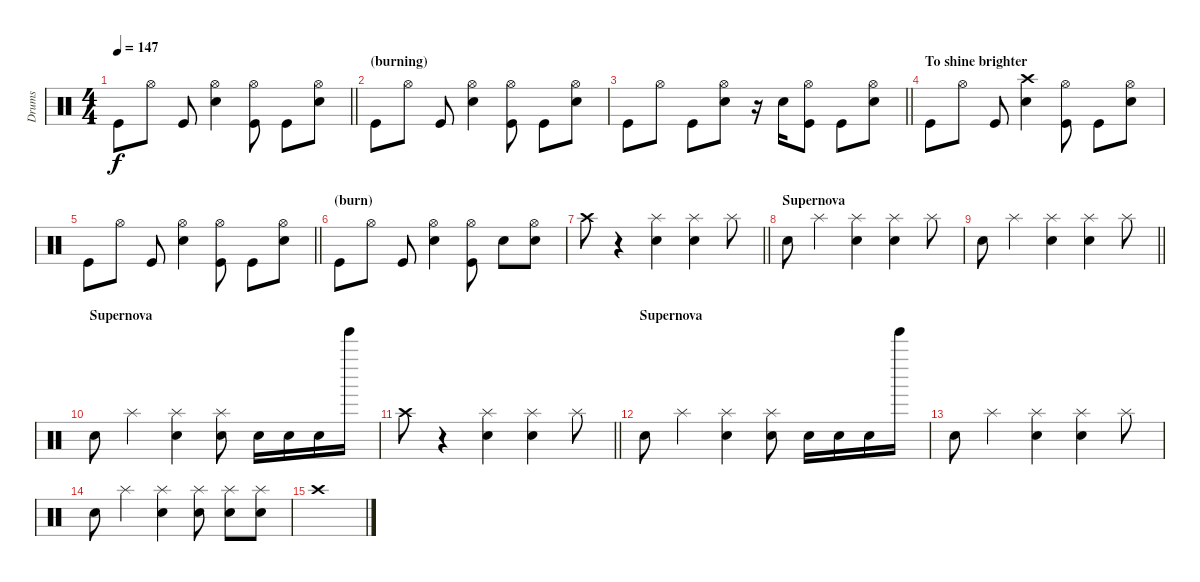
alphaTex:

\track ("Drums" "Drums") {instrument percussion}
\staff {score}
\articulation defaults
\ts (4 4)
\tempo 147
\clef neutral
\barLineRight lightlight
\ks c "Kick (hit)".8{dy f} "Hi-Hat (open)".8 "Kick (hit)".8
("Hi-Hat (open)" "Snare (hit) 2").4 ("Hi-Hat (open)" "Kick (hit)").8 "Kick (hit)".8 ("Hi-Hat (open)" "Snare (hit) 2").8 |
\section ("" "(burning) ")
"Kick (hit)".8 "Hi-Hat (open)".8 "Kick (hit)".8 ("Hi-Hat (open)" "Snare (hit) 2").4 ("Hi-Hat (open)" "Kick (hit)").8 "Kick (hit)".8 ("Hi-Hat (open)" "Snare (hit) 2").8 |
\barLineRight lightlight "Kick (hit)".8 "Hi-Hat (open)".8 "Kick (hit)".8
("Hi-Hat (open)" "Snare (hit) 2").8 r.16 "Snare (hit) 2".16 ("Hi-Hat (open)" "Kick (hit)").8 "Kick (hit)".8 ("Hi-Hat (open)" "Snare (hit) 2").8 |
\section ("" "To shine brighter ")
"Kick (hit)".8 "Hi-Hat (open)".8 "Kick (hit)".8 ("Crash high (hit)" "Snare (hit) 2").4 ("Hi-Hat (open)" "Kick (hit)").8 "Kick (hit)".8 ("Hi-Hat (open)" "Snare (hit) 2").8 |
\barLineRight lightlight "Kick (hit)".8 "Hi-Hat (open)".8 "Kick (hit)".8
("Hi-Hat (open)" "Snare (hit) 2").4 ("Hi-Hat (open)" "Kick (hit)").8 "Kick (hit)".8 ("Hi-Hat (open)" "Snare (hit) 2").8 |
\section ("" "(burn) ")
"Kick (hit)".8 "Hi-Hat (open)".8 "Kick (hit)".8 ("Hi-Hat (open)" "Snare (hit) 2").4 ("Hi-Hat (open)" "Kick (hit)").8 "Snare (hit) 2".8 ("Hi-Hat (open)" "Snare (hit) 2").8 |
\barLineRight lightlight "Crash high (hit)".8
r.4 ("Splash (hit)" "Snare (hit) 2").4 ("Splash (hit)" "Snare (hit) 2").4 "Splash (hit)".8 |
\section ("" "Supernova ")
"Snare (hit) 2".8 "Splash (hit)".4 ("Splash (hit)" "Snare (hit) 2").4 ("Splash (hit)" "Snare (hit) 2").4 "Splash (hit)".8 |
\barLineRight lightlight "Snare (hit) 2".8 "Splash (hit)".4
("Splash (hit)" "Snare (hit) 2").4 ("Splash (hit)" "Snare (hit) 2").4 "Splash (hit)".8 |
\section ("" "Supernova ")
"Snare (hit) 2".8 "Splash (hit)".4 ("Splash (hit)" "Snare (hit) 2").4 ("Splash (hit)" "Snare (hit) 2").8 "Snare (hit) 2".16 "Snare (hit) 2".16 "Snare (hit) 2".16 "Tinkle Bell (hit)".16 |
\barLineRight lightlight "Crash high (hit)".8
r.4 ("Splash (hit)" "Snare (hit) 2").4 ("Splash (hit)" "Snare (hit) 2").4 "Splash (hit)".8 |
\section ("" "Supernova ")
"Snare (hit) 2".8 "Splash (hit)".4 ("Splash (hit)" "Snare (hit) 2").4 ("Splash (hit)" "Snare (hit) 2").8 "Snare (hit) 2".16 "Snare (hit) 2".16 "Snare (hit) 2".16 "Tinkle Bell (hit)".16 |
"Snare (hit) 2".8 "Splash (hit)".4 ("Splash (hit)" "Snare (hit) 2").4 ("Splash (hit)" "Snare (hit) 2").4 "Splash (hit)".8 |
"Snare (hit) 2".8 "Splash (hit)".4 ("Splash (hit)" "Snare (hit) 2").4 ("Splash (hit)" "Snare (hit) 2").8 ("Splash (hit)" "Snare (hit) 2").8 ("Splash (hit)" "Snare (hit) 2").8 |
"Crash high (hit)".1
